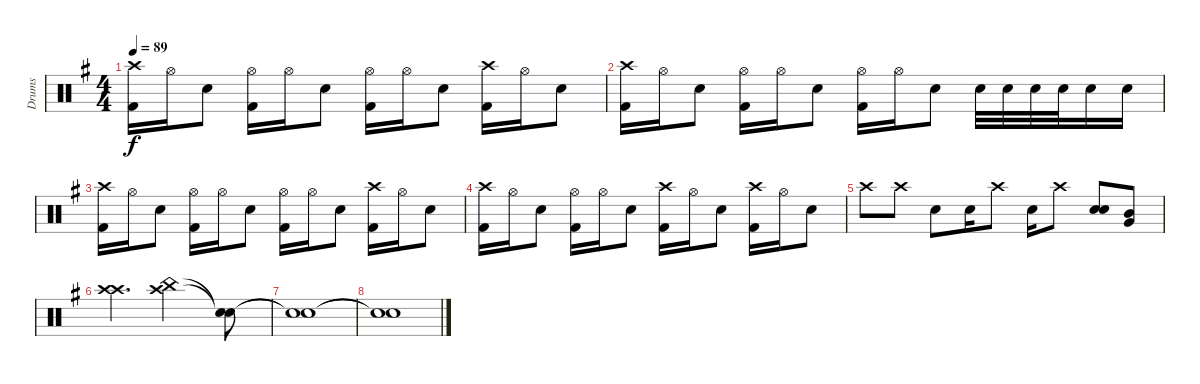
\track ("Drums" "Drums") {instrument percussion}
\staff {score}
\articulation defaults
\ts (4 4)
\tempo 89
\clef neutral
\ks g
("Kick (hit) 2" "Crash high (hit)").16{dy f} "Hi-Hat (open)".16 "Electric Snare (hit)".8 ("Kick (hit) 2" "Hi-Hat (open)").16 "Hi-Hat (open)".16 "Electric Snare (hit)".8 ("Kick (hit) 2" "Hi-Hat (open)").16 "Hi-Hat (open)".16 "Electric Snare (hit)".8 ("Kick (hit) 2" "Crash high (hit)").16 "Hi-Hat (open)".16 "Electric Snare (hit)".8 |
("Kick (hit) 2" "Crash high (hit)").16 "Hi-Hat (open)".16 "Electric Snare (hit)".8 ("Kick (hit) 2" "Hi-Hat (open)").16 "Hi-Hat (open)".16 "Electric Snare (hit)".8 ("Kick (hit) 2" "Hi-Hat (open)").16 "Hi-Hat (open)".16 "Electric Snare (hit)".8 "Electric Snare (hit)".32 "Electric Snare (hit)".32 "Electric Snare (hit)".32 "Electric Snare (hit)".32 "Electric Snare (hit)".16 "Electric Snare (hit)".16 |
("Kick (hit) 2" "Crash high (hit)").16 "Hi-Hat (open)".16 "Electric Snare (hit)".8 ("Kick (hit) 2" "Hi-Hat (open)").16 "Hi-Hat (open)".16 "Electric Snare (hit)".8 ("Kick (hit) 2" "Hi-Hat (open)").16 "Hi-Hat (open)".16 "Electric Snare (hit)".8 ("Kick (hit) 2" "Crash high (hit)").16 "Hi-Hat (open)".16 "Electric Snare (hit)".8 |
("Kick (hit) 2" "Crash high (hit)").16 "Hi-Hat (open)".16 "Electric Snare (hit)".8 ("Kick (hit) 2" "Hi-Hat (open)").16 "Hi-Hat (open)".16 "Electric Snare (hit)".8 ("Kick (hit) 2" "Crash high (hit)").16 "Hi-Hat (open)".16 "Electric Snare (hit)".8 ("Kick (hit) 2" "Crash high (hit)").16 "Hi-Hat (open)".16 "Electric Snare (hit)".8 |
"Crash high (hit)".8 "Crash high (hit)".8 "Electric Snare (hit)".8 "Electric Snare (hit)".16 "Crash high (hit)".8 "Electric Snare (hit)".16 "Crash high (hit)".8 ("Electric Snare (hit)" "Electric Snare (hit)").8 ("Mid Tom (hit)" "Very Low Tom (hit)").8 |
("Crash high (hit)" "Crash high (hit)").4{d} ("Crash high (hit)" "China (hit)").2 ("Snare (hit)"{t} "Snare (hit)"{t}).8 |
("Snare (hit)"{t} "Snare (hit)"{t}).1 |
("Snare (hit)"{t} "Snare (hit)"{t}).1
